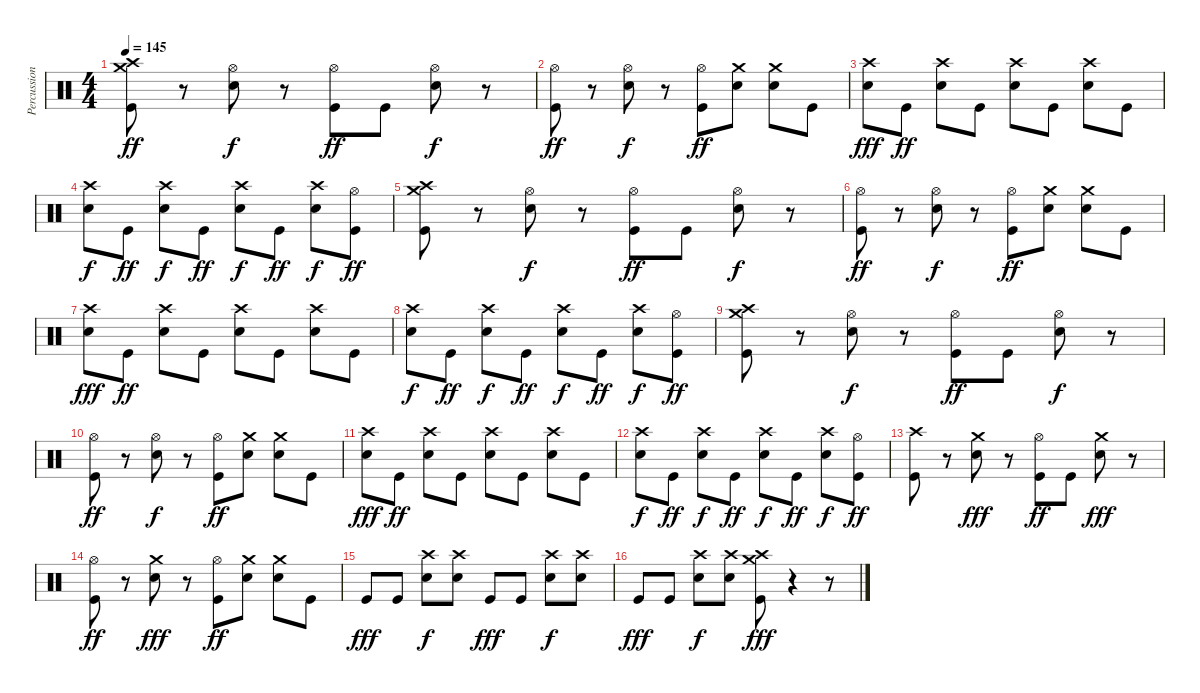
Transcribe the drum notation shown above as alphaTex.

\track ("Percussion" "Percussion") {instrument percussion}
\staff {score}
\articulation defaults
\ts (4 4)
\tempo 145
\clef neutral
\ks c
("Crash high (hit)" "Crash medium (hit)" "Kick (hit)").8{dy ff} r.8 ("Hi-Hat (open)" "Snare (hit) 2").8{dy f} r.8 ("Hi-Hat (open)" "Kick (hit)").8{dy ff} "Kick (hit)".8 ("Hi-Hat (open)" "Snare (hit) 2").8{dy f} r.8 |
("Hi-Hat (open)" "Kick (hit)").8{dy ff} r.8 ("Hi-Hat (open)" "Snare (hit) 2").8{dy f} r.8 ("Hi-Hat (open)" "Kick (hit)").8{dy ff} ("Crash medium (hit)" "Snare (hit) 2").8 ("Crash medium (hit)" "Snare (hit) 2").8 "Kick (hit)".8 |
("Crash high (hit)" "Snare (hit) 2").8{dy fff} "Kick (hit)".8{dy ff} ("Crash high (hit)" "Snare (hit) 2").8 "Kick (hit)".8 ("Crash high (hit)" "Snare (hit) 2").8 "Kick (hit)".8 ("Crash high (hit)" "Snare (hit) 2").8 "Kick (hit)".8 |
("Crash high (hit)" "Snare (hit) 2").8{dy f} "Kick (hit)".8{dy ff} ("Crash high (hit)" "Snare (hit) 2").8{dy f} "Kick (hit)".8{dy ff} ("Crash high (hit)" "Snare (hit) 2").8{dy f} "Kick (hit)".8{dy ff} ("Crash high (hit)" "Snare (hit) 2").8{dy f} ("Hi-Hat (open)" "Kick (hit)").8{dy ff} |
("Crash high (hit)" "Crash medium (hit)" "Kick (hit)").8 r.8 ("Hi-Hat (open)" "Snare (hit) 2").8{dy f} r.8 ("Hi-Hat (open)" "Kick (hit)").8{dy ff} "Kick (hit)".8 ("Hi-Hat (open)" "Snare (hit) 2").8{dy f} r.8 |
("Hi-Hat (open)" "Kick (hit)").8{dy ff} r.8 ("Hi-Hat (open)" "Snare (hit) 2").8{dy f} r.8 ("Hi-Hat (open)" "Kick (hit)").8{dy ff} ("Crash medium (hit)" "Snare (hit) 2").8 ("Crash medium (hit)" "Snare (hit) 2").8 "Kick (hit)".8 |
("Crash high (hit)" "Snare (hit) 2").8{dy fff} "Kick (hit)".8{dy ff} ("Crash high (hit)" "Snare (hit) 2").8 "Kick (hit)".8 ("Crash high (hit)" "Snare (hit) 2").8 "Kick (hit)".8 ("Crash high (hit)" "Snare (hit) 2").8 "Kick (hit)".8 |
("Crash high (hit)" "Snare (hit) 2").8{dy f} "Kick (hit)".8{dy ff} ("Crash high (hit)" "Snare (hit) 2").8{dy f} "Kick (hit)".8{dy ff} ("Crash high (hit)" "Snare (hit) 2").8{dy f} "Kick (hit)".8{dy ff} ("Crash high (hit)" "Snare (hit) 2").8{dy f} ("Hi-Hat (open)" "Kick (hit)").8{dy ff} |
("Crash high (hit)" "Crash medium (hit)" "Kick (hit)").8 r.8 ("Hi-Hat (open)" "Snare (hit) 2").8{dy f} r.8 ("Hi-Hat (open)" "Kick (hit)").8{dy ff} "Kick (hit)".8 ("Hi-Hat (open)" "Snare (hit) 2").8{dy f} r.8 |
("Hi-Hat (open)" "Kick (hit)").8{dy ff} r.8 ("Hi-Hat (open)" "Snare (hit) 2").8{dy f} r.8 ("Hi-Hat (open)" "Kick (hit)").8{dy ff} ("Crash medium (hit)" "Snare (hit) 2").8 ("Crash medium (hit)" "Snare (hit) 2").8 "Kick (hit)".8 |
("Crash high (hit)" "Snare (hit) 2").8{dy fff} "Kick (hit)".8{dy ff} ("Crash high (hit)" "Snare (hit) 2").8 "Kick (hit)".8 ("Crash high (hit)" "Snare (hit) 2").8 "Kick (hit)".8 ("Crash high (hit)" "Snare (hit) 2").8 "Kick (hit)".8 |
("Crash high (hit)" "Snare (hit) 2").8{dy f} "Kick (hit)".8{dy ff} ("Crash high (hit)" "Snare (hit) 2").8{dy f} "Kick (hit)".8{dy ff} ("Crash high (hit)" "Snare (hit) 2").8{dy f} "Kick (hit)".8{dy ff} ("Crash high (hit)" "Snare (hit) 2").8{dy f} ("Hi-Hat (open)" "Kick (hit)").8{dy ff} |
("Crash high (hit)" "Kick (hit)").8 r.8 ("Crash medium (hit)" "Snare (hit) 2").8{dy fff} r.8 ("Hi-Hat (open)" "Kick (hit)").8{dy ff} "Kick (hit)".8 ("Crash medium (hit)" "Snare (hit) 2").8{dy fff} r.8 |
("Hi-Hat (open)" "Kick (hit)").8{dy ff} r.8 ("Crash medium (hit)" "Snare (hit) 2").8{dy fff} r.8 ("Hi-Hat (open)" "Kick (hit)").8{dy ff} ("Crash medium (hit)" "Snare (hit) 2").8 ("Crash medium (hit)" "Snare (hit) 2").8 "Kick (hit)".8 |
"Kick (hit)".8{dy fff} "Kick (hit)".8 ("Crash high (hit)" "Snare (hit) 2").8{dy f} ("Crash high (hit)" "Snare (hit) 2").8 "Kick (hit)".8{dy fff} "Kick (hit)".8 ("Crash high (hit)" "Snare (hit) 2").8{dy f} ("Crash high (hit)" "Snare (hit) 2").8 |
"Kick (hit)".8{dy fff} "Kick (hit)".8 ("Crash high (hit)" "Snare (hit) 2").8{dy f} ("Crash high (hit)" "Snare (hit) 2").8 ("Crash high (hit)" "Crash medium (hit)" "Kick (hit)").8{dy fff} r.4 r.8
